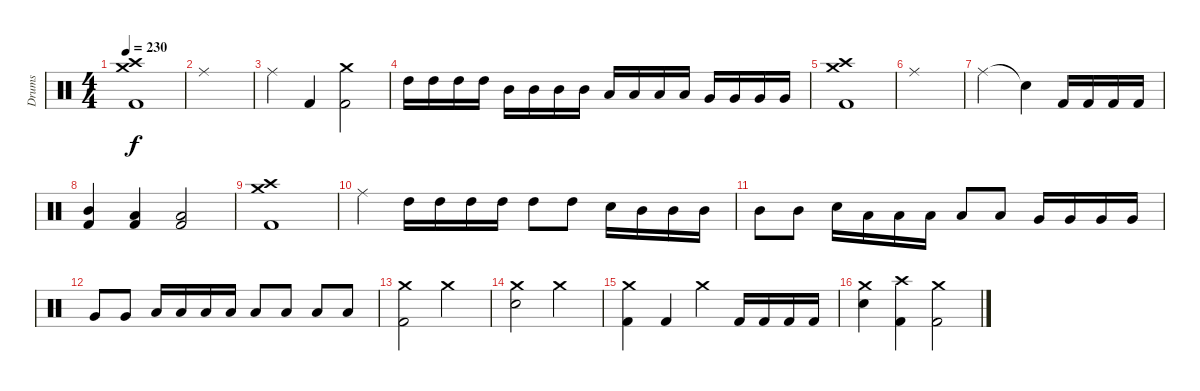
\track ("Drums" "Drums") {instrument percussion}
\staff {score}
\articulation defaults
\ts (4 4)
\tempo 230
\clef neutral
\ks c
("Crash medium (hit)" "Crash high (hit)" "Kick (hit) 2").1{dy f} |
"Ride (middle)".1 |
"Ride (middle)".4 "Kick (hit) 2".4 ("Crash medium (hit)" "Kick (hit) 2").2 |
"High Tom (hit)".16 "High Tom (hit)".16 "High Tom (hit)".16 "High Tom (hit)".16 "Mid Tom (hit)".16 "Mid Tom (hit)".16 "Mid Tom (hit)".16 "Mid Tom (hit)".16 "Low Tom (hit)".16 "Low Tom (hit)".16 "Low Tom (hit)".16 "Low Tom (hit)".16 "Very Low Tom (hit)".16 "Very Low Tom (hit)".16 "Very Low Tom (hit)".16 "Very Low Tom (hit)".16 |
("Crash medium (hit)" "Crash high (hit)" "Kick (hit) 2").1 |
"Ride (middle)".1 |
"Ride (middle)".2 "Snare (hit)"{t}.4 "Kick (hit) 2".16 "Kick (hit) 2".16 "Kick (hit) 2".16 "Kick (hit) 2".16 |
("Mid Tom (hit)" "Kick (hit) 2").4 ("Low Tom (hit)" "Kick (hit) 2").4 ("Low Floor Tom (hit)" "Kick (hit) 2").2 |
("Crash high (hit)" "Crash medium (hit)" "Kick (hit) 2").1 |
"Ride (middle)".4 "High Tom (hit)".16 "High Tom (hit)".16 "High Tom (hit)".16 "High Tom (hit)".16 "High Tom (hit)".8 "High Tom (hit)".8 "Electric Snare (hit)".16 "Mid Tom (hit)".16 "Mid Tom (hit)".16 "Mid Tom (hit)".16 |
"Mid Tom (hit)".8 "Mid Tom (hit)".8 "Electric Snare (hit)".16 "Low Tom (hit)".16 "Low Tom (hit)".16 "Low Tom (hit)".16 "Low Tom (hit)".8 "Low Tom (hit)".8 "Very Low Tom (hit)".16 "Very Low Tom (hit)".16 "Very Low Tom (hit)".16 "Very Low Tom (hit)".16 |
"Very Low Tom (hit)".8 "Very Low Tom (hit)".8 "Low Floor Tom (hit)".16 "Low Floor Tom (hit)".16 "Low Floor Tom (hit)".16 "Low Floor Tom (hit)".16 "Low Floor Tom (hit)".8 "Low Floor Tom (hit)".8 "Low Floor Tom (hit)".8 "Low Floor Tom (hit)".8 |
("Crash medium (hit)" "Kick (hit) 2").2 "Crash medium (hit)".2 |
("Crash medium (hit)" "Electric Snare (hit)").2 "Crash medium (hit)".2 |
("Crash medium (hit)" "Kick (hit) 2").4 "Kick (hit) 2".4 "Crash medium (hit)".4 "Kick (hit) 2".16 "Kick (hit) 2".16 "Kick (hit) 2".16 "Kick (hit) 2".16 |
("Crash medium (hit)" "Electric Snare (hit)").4 ("Crash high (hit)" "Kick (hit) 2").4 ("Crash medium (hit)" "Kick (hit) 2").2
